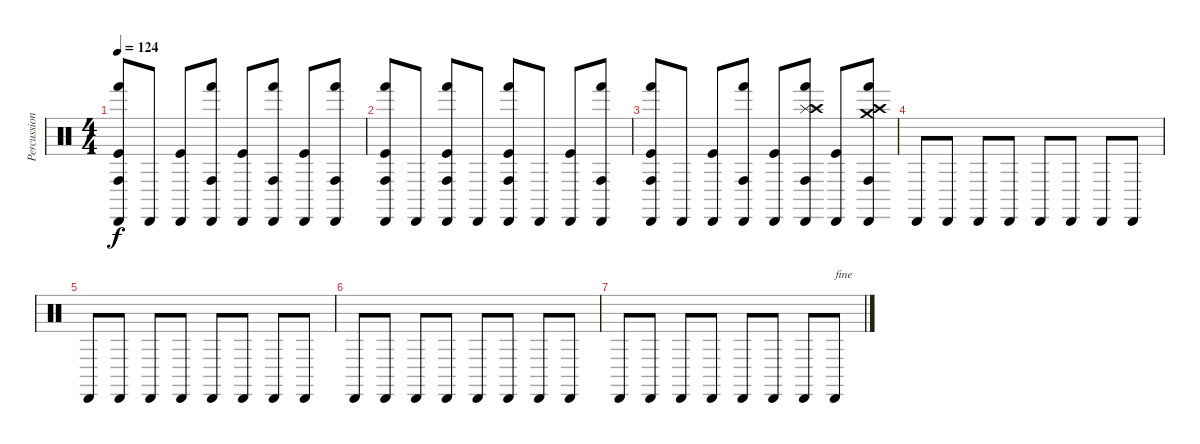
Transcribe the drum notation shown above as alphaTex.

\track ("Percussion" "Percussion") {instrument percussion}
\staff {score}
\articulation defaults
\ts (4 4)
\tempo 124
\clef neutral
\ks c
("Cabasa (hit)" "Kick (hit)" "Hand (hit)" "Conga high (hit)").8{dy f} "Cabasa (hit)".8 ("Cabasa (hit)" "Kick (hit)").8 ("Cabasa (hit)" "Hand (hit)" "Conga high (hit)").8 ("Cabasa (hit)" "Kick (hit)").8 ("Cabasa (hit)" "Hand (hit)" "Conga high (hit)").8 ("Cabasa (hit)" "Kick (hit)").8 ("Cabasa (hit)" "Hand (hit)" "Conga high (hit)").8 |
("Cabasa (hit)" "Kick (hit)" "Hand (hit)" "Conga high (hit)").8 "Cabasa (hit)".8 ("Cabasa (hit)" "Kick (hit)" "Hand (hit)" "Conga high (hit)").8 "Cabasa (hit)".8 ("Cabasa (hit)" "Kick (hit)" "Hand (hit)" "Conga high (hit)").8 "Cabasa (hit)".8 ("Cabasa (hit)" "Kick (hit)").8 ("Cabasa (hit)" "Hand (hit)" "Conga high (hit)").8 |
("Cabasa (hit)" "Kick (hit)" "Hand (hit)" "Conga high (hit)").8 "Cabasa (hit)".8 ("Cabasa (hit)" "Kick (hit)").8 ("Cabasa (hit)" "Hand (hit)" "Conga high (hit)").8 ("Cabasa (hit)" "Kick (hit)").8 ("Cabasa (hit)" "Hand (hit)" "Conga high (hit)" "Splash (hit)" "Crash high (hit)").8 ("Cabasa (hit)" "Kick (hit)").8 ("Cabasa (hit)" "Hand (hit)" "Conga high (hit)" "Crash medium (hit)" "Crash high (hit)").8 |
"Cabasa (hit)".8 "Cabasa (hit)".8 "Cabasa (hit)".8 "Cabasa (hit)".8 "Cabasa (hit)".8 "Cabasa (hit)".8 "Cabasa (hit)".8 "Cabasa (hit)".8 |
"Cabasa (hit)".8 "Cabasa (hit)".8 "Cabasa (hit)".8 "Cabasa (hit)".8 "Cabasa (hit)".8 "Cabasa (hit)".8 "Cabasa (hit)".8 "Cabasa (hit)".8 |
"Cabasa (hit)".8 "Cabasa (hit)".8 "Cabasa (hit)".8 "Cabasa (hit)".8 "Cabasa (hit)".8 "Cabasa (hit)".8 "Cabasa (hit)".8 "Cabasa (hit)".8 |
"Cabasa (hit)".8 "Cabasa (hit)".8 "Cabasa (hit)".8 "Cabasa (hit)".8 "Cabasa (hit)".8 "Cabasa (hit)".8 "Cabasa (hit)".8 "Cabasa (hit)".8{txt "fine"}
